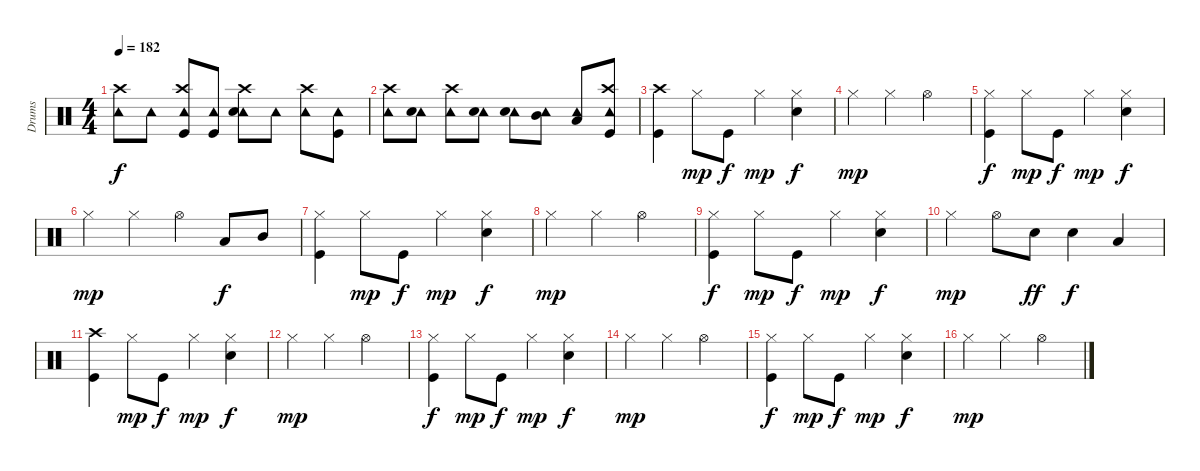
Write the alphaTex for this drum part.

\track ("Drums" "Drums") {instrument percussion}
\staff {score}
\articulation defaults
\ts (4 4)
\tempo 182
\clef neutral
\ks c
("Tambourine (hit)" "Crash high (hit)").8{dy f} "Tambourine (hit)".8 ("Tambourine (hit)" "Crash high (hit)" "Kick (hit)").8 ("Tambourine (hit)" "Kick (hit)").8 ("Tambourine (hit)" "Crash high (hit)" "Electric Snare (hit)").8 "Tambourine (hit)".8 ("Tambourine (hit)" "Crash high (hit)").8 ("Tambourine (hit)" "Kick (hit)").8 |
("Tambourine (hit)" "Crash high (hit)").8 ("Tambourine (hit)" "Electric Snare (hit)").8 ("Tambourine (hit)" "Crash high (hit)").8 ("Tambourine (hit)" "Electric Snare (hit)").8 ("Tambourine (hit)" "Electric Snare (hit)").8 ("Tambourine (hit)" "Mid Tom (hit)").8 ("Tambourine (hit)" "Low Tom (hit)").8 ("Tambourine (hit)" "Crash high (hit)" "Kick (hit)").8 |
("Crash high (hit)" "Kick (hit)").4 "Hi-Hat (closed)".8{dy mp} "Kick (hit)".8{dy f} "Hi-Hat (closed)".4{dy mp} ("Hi-Hat (closed)" "Electric Snare (hit)").4{dy f} |
"Hi-Hat (closed)".4{dy mp} "Hi-Hat (closed)".4 "Hi-Hat (open)".2 |
("Hi-Hat (closed)" "Kick (hit)").4{dy f} "Hi-Hat (closed)".8{dy mp} "Kick (hit)".8{dy f} "Hi-Hat (closed)".4{dy mp} ("Hi-Hat (closed)" "Electric Snare (hit)").4{dy f} |
"Hi-Hat (closed)".4{dy mp} "Hi-Hat (closed)".4 "Hi-Hat (open)".4 "Low Tom (hit)".8{dy f} "Mid Tom (hit)".8 |
("Hi-Hat (closed)" "Kick (hit)").4 "Hi-Hat (closed)".8{dy mp} "Kick (hit)".8{dy f} "Hi-Hat (closed)".4{dy mp} ("Hi-Hat (closed)" "Electric Snare (hit)").4{dy f} |
"Hi-Hat (closed)".4{dy mp} "Hi-Hat (closed)".4 "Hi-Hat (open)".2 |
("Hi-Hat (closed)" "Kick (hit)").4{dy f} "Hi-Hat (closed)".8{dy mp} "Kick (hit)".8{dy f} "Hi-Hat (closed)".4{dy mp} ("Hi-Hat (closed)" "Electric Snare (hit)").4{dy f} |
"Hi-Hat (closed)".4{dy mp} "Hi-Hat (open)".8 "Electric Snare (hit)".8{dy ff} "Electric Snare (hit)".4{dy f} "Low Tom (hit)".4 |
("Crash high (hit)" "Kick (hit)").4 "Hi-Hat (closed)".8{dy mp} "Kick (hit)".8{dy f} "Hi-Hat (closed)".4{dy mp} ("Hi-Hat (closed)" "Electric Snare (hit)").4{dy f} |
"Hi-Hat (closed)".4{dy mp} "Hi-Hat (closed)".4 "Hi-Hat (open)".2 |
("Hi-Hat (closed)" "Kick (hit)").4{dy f} "Hi-Hat (closed)".8{dy mp} "Kick (hit)".8{dy f} "Hi-Hat (closed)".4{dy mp} ("Hi-Hat (closed)" "Electric Snare (hit)").4{dy f} |
"Hi-Hat (closed)".4{dy mp} "Hi-Hat (closed)".4 "Hi-Hat (open)".2 |
("Hi-Hat (closed)" "Kick (hit)").4{dy f} "Hi-Hat (closed)".8{dy mp} "Kick (hit)".8{dy f} "Hi-Hat (closed)".4{dy mp} ("Hi-Hat (closed)" "Electric Snare (hit)").4{dy f} |
"Hi-Hat (closed)".4{dy mp} "Hi-Hat (closed)".4 "Hi-Hat (open)".2
